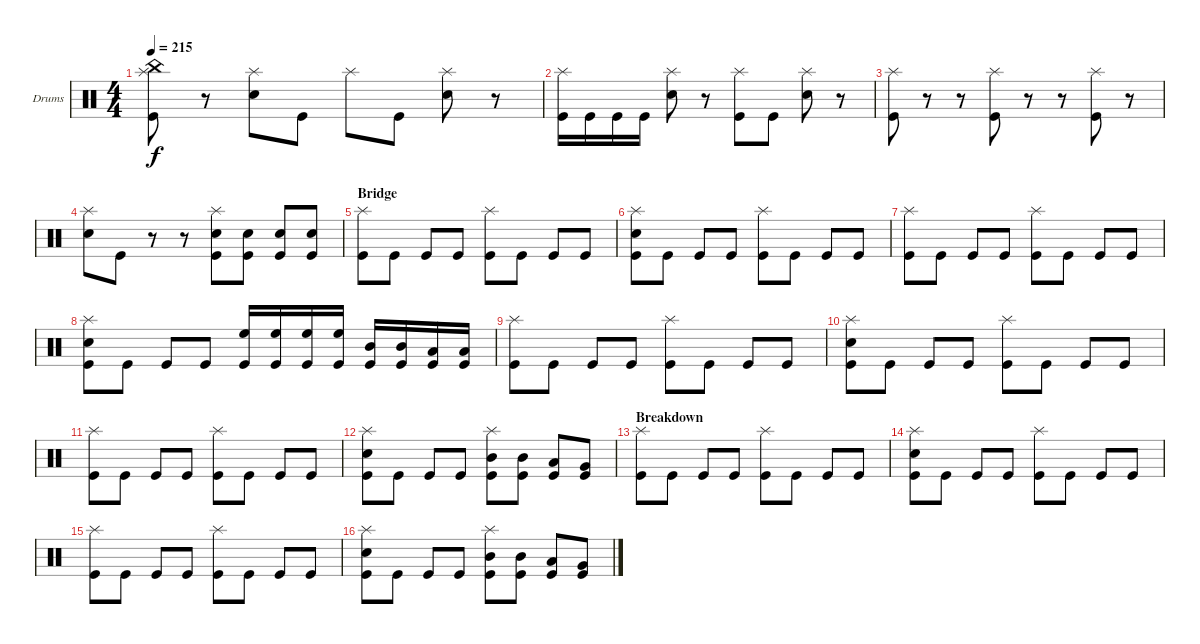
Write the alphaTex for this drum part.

\defaultSystemsLayout 4
\bracketExtendMode groupsimilarinstruments
\firstSystemTrackNameOrientation horizontal
\otherSystemsTrackNameOrientation horizontal
\track ("Drumkit" "Drums") {instrument percussion}
\staff {score}
\articulation defaults
\ts (4 4)
\tempo 215
\clef neutral
\ks c
("Splash (hit)" "Kick (hit)" "China (hit)").8{dy f} r.8 ("Splash (hit)" "Snare (hit) 2").8 "Kick (hit)".8 "Splash (hit)".8 "Kick (hit)".8 ("Splash (hit)" "Snare (hit) 2").8 r.8 |
("Splash (hit)" "Kick (hit)").16 "Kick (hit)".16 "Kick (hit)".16 "Kick (hit)".16 ("Splash (hit)" "Snare (hit) 2").8 r.8 ("Splash (hit)" "Kick (hit)").8 "Kick (hit)".8 ("Splash (hit)" "Snare (hit) 2").8 r.8 |
("Kick (hit)" "Splash (hit)").8 r.8 r.8 ("Kick (hit)" "Splash (hit)").8 r.8 r.8 ("Kick (hit)" "Splash (hit)").8 r.8 |
("Splash (hit)" "Snare (hit) 2").8 "Kick (hit)".8 r.8 r.8 ("Kick (hit)" "Splash (hit)" "Snare (hit) 2").8 ("Kick (hit)" "Snare (hit) 2").8 ("Kick (hit)" "Snare (hit) 2").8 ("Kick (hit)" "Snare (hit) 2").8 |
\section ("" "Bridge")
("Kick (hit)" "Splash (hit)").8 "Kick (hit)".8 "Kick (hit)".8 "Kick (hit)".8 ("Kick (hit)" "Splash (hit)").8 "Kick (hit)".8 "Kick (hit)".8 "Kick (hit)".8 |
("Kick (hit)" "Splash (hit)" "Snare (hit) 2").8 "Kick (hit)".8 "Kick (hit)".8 "Kick (hit)".8 ("Kick (hit)" "Splash (hit)").8 "Kick (hit)".8 "Kick (hit)".8 "Kick (hit)".8 |
("Kick (hit)" "Splash (hit)").8 "Kick (hit)".8 "Kick (hit)".8 "Kick (hit)".8 ("Kick (hit)" "Splash (hit)").8 "Kick (hit)".8 "Kick (hit)".8 "Kick (hit)".8 |
("Kick (hit)" "Splash (hit)" "Snare (hit) 2").8 "Kick (hit)".8 "Kick (hit)".8 "Kick (hit)".8 ("Kick (hit)" "High Floor Tom (hit)").16 ("Kick (hit)" "High Floor Tom (hit)").16 ("Kick (hit)" "High Floor Tom (hit)").16 ("Kick (hit)" "High Floor Tom (hit)").16 ("Mid Tom (hit)" "Kick (hit)").16 ("Mid Tom (hit)" "Kick (hit)").16 ("Low Tom (hit)" "Kick (hit)").16 ("Low Tom (hit)" "Kick (hit)").16 |
("Kick (hit)" "Splash (hit)").8 "Kick (hit)".8 "Kick (hit)".8 "Kick (hit)".8 ("Kick (hit)" "Splash (hit)").8 "Kick (hit)".8 "Kick (hit)".8 "Kick (hit)".8 |
("Kick (hit)" "Splash (hit)" "Snare (hit) 2").8 "Kick (hit)".8 "Kick (hit)".8 "Kick (hit)".8 ("Kick (hit)" "Splash (hit)").8 "Kick (hit)".8 "Kick (hit)".8 "Kick (hit)".8 |
("Kick (hit)" "Splash (hit)").8 "Kick (hit)".8 "Kick (hit)".8 "Kick (hit)".8 ("Kick (hit)" "Splash (hit)").8 "Kick (hit)".8 "Kick (hit)".8 "Kick (hit)".8 |
("Kick (hit)" "Splash (hit)" "Snare (hit) 2").8 "Kick (hit)".8 "Kick (hit)".8 "Kick (hit)".8 ("Kick (hit)" "Splash (hit)" "Mid Tom (hit)").8 ("Kick (hit)" "Mid Tom (hit)").8 ("Kick (hit)" "Low Tom (hit)").8 ("Kick (hit)" "Very Low Tom (hit)").8 |
\section ("" "Breakdown")
("Kick (hit)" "Splash (hit)").8 "Kick (hit)".8 "Kick (hit)".8 "Kick (hit)".8 ("Kick (hit)" "Splash (hit)").8 "Kick (hit)".8 "Kick (hit)".8 "Kick (hit)".8 |
("Kick (hit)" "Splash (hit)" "Snare (hit) 2").8 "Kick (hit)".8 "Kick (hit)".8 "Kick (hit)".8 ("Kick (hit)" "Splash (hit)").8 "Kick (hit)".8 "Kick (hit)".8 "Kick (hit)".8 |
("Kick (hit)" "Splash (hit)").8 "Kick (hit)".8 "Kick (hit)".8 "Kick (hit)".8 ("Kick (hit)" "Splash (hit)").8 "Kick (hit)".8 "Kick (hit)".8 "Kick (hit)".8 |
("Kick (hit)" "Splash (hit)" "Snare (hit) 2").8 "Kick (hit)".8 "Kick (hit)".8 "Kick (hit)".8 ("Kick (hit)" "Splash (hit)" "Mid Tom (hit)").8 ("Kick (hit)" "Mid Tom (hit)").8 ("Kick (hit)" "Low Tom (hit)").8 ("Kick (hit)" "Very Low Tom (hit)").8
